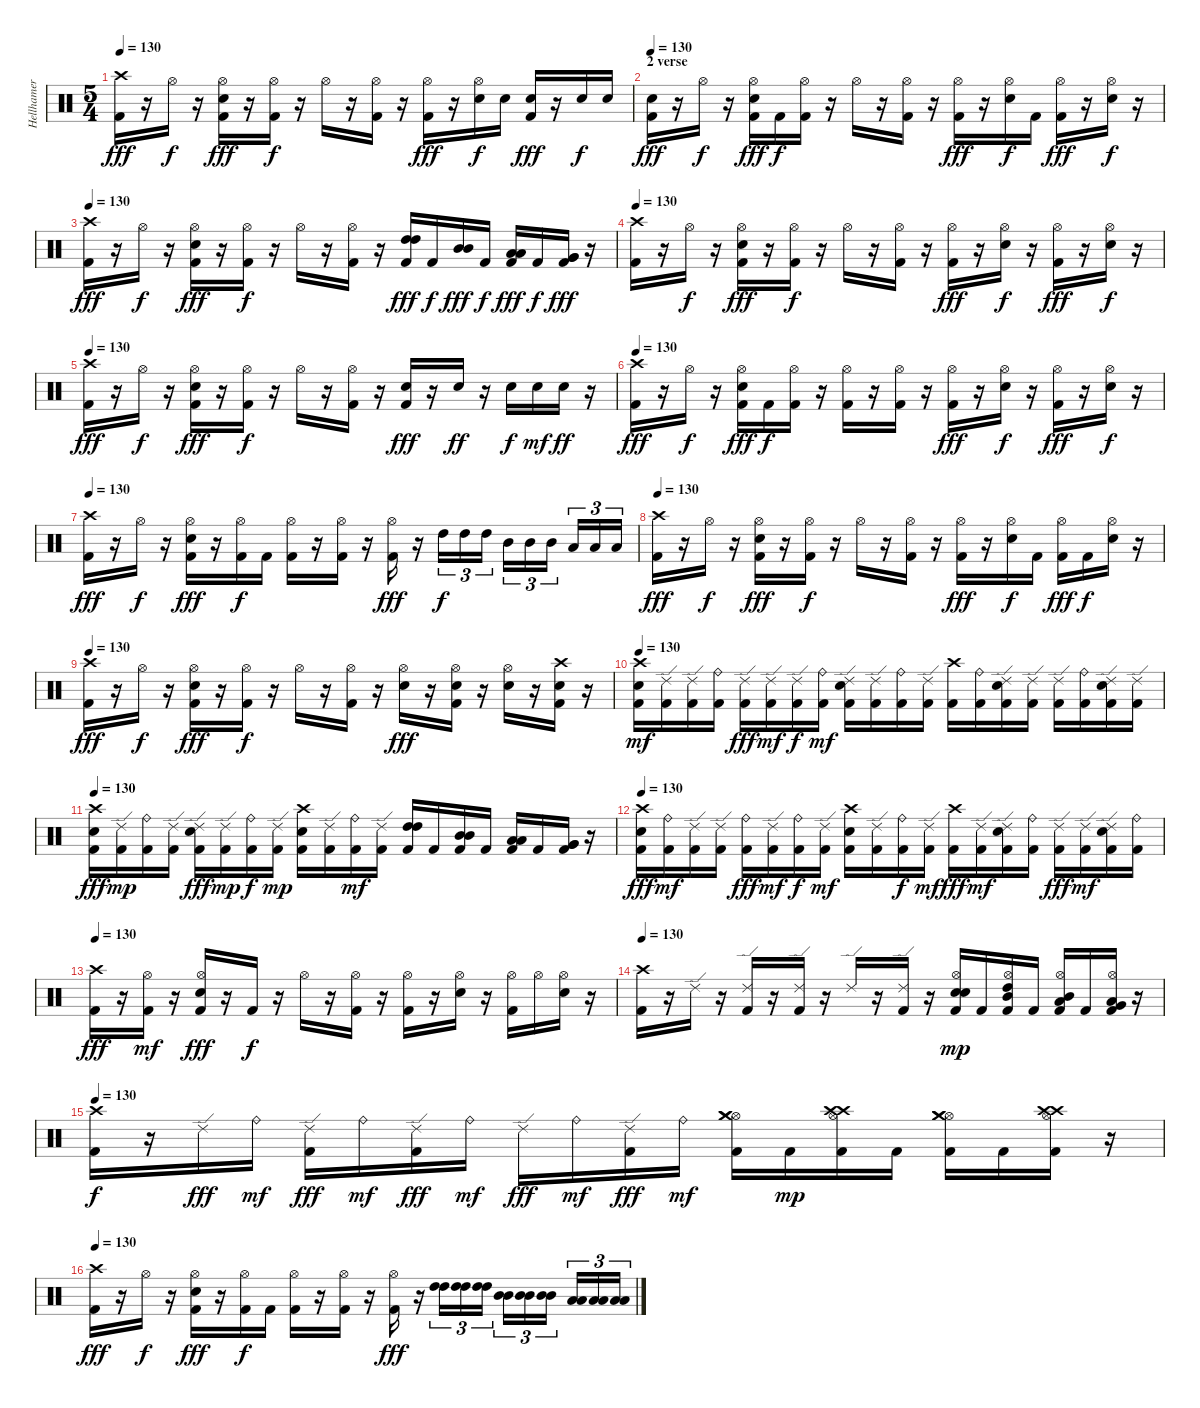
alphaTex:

\track ("Hellhamer" "Hellhamer") {instrument percussion}
\staff {score}
\articulation defaults
\ts (5 4)
\tempo 130
\clef neutral
\ks c
("Crash high (hit)" "Kick (hit) 2").16{dy fff} r.16 "Hi-Hat (open)".16{dy f} r.16 ("Hi-Hat (open)" "Electric Snare (hit)" "Kick (hit) 2").16{dy fff} r.16 ("Hi-Hat (open)" "Kick (hit) 2").16{dy f} r.16 "Hi-Hat (open)".16 r.16 ("Hi-Hat (open)" "Kick (hit) 2").16 r.16 ("Hi-Hat (open)" "Kick (hit) 2").16{dy fff} r.16 ("Hi-Hat (open)" "Electric Snare (hit)").16{dy f} "Electric Snare (hit)".16 ("Electric Snare (hit)" "Kick (hit) 2").16{dy fff} r.16 "Electric Snare (hit)".16{dy f} "Electric Snare (hit)".16 |
\section ("" "2 verse")
\tempo 130
("Electric Snare (hit)" "Kick (hit) 2").16{dy fff} r.16 "Hi-Hat (open)".16{dy f} r.16 ("Hi-Hat (open)" "Electric Snare (hit)" "Kick (hit) 2").16{dy fff} "Kick (hit) 2".16{dy f} ("Hi-Hat (open)" "Kick (hit) 2").16 r.16 "Hi-Hat (open)".16 r.16 ("Hi-Hat (open)" "Kick (hit) 2").16 r.16 ("Hi-Hat (open)" "Kick (hit) 2").16{dy fff} r.16 ("Hi-Hat (open)" "Electric Snare (hit)").16{dy f} "Kick (hit) 2".16 ("Hi-Hat (open)" "Kick (hit) 2").16{dy fff} r.16 ("Hi-Hat (open)" "Electric Snare (hit)").16{dy f} r.16 |
\tempo 130
("Crash high (hit)" "Kick (hit) 2").16{dy fff} r.16 "Hi-Hat (open)".16{dy f} r.16 ("Hi-Hat (open)" "Electric Snare (hit)" "Kick (hit) 2").16{dy fff} r.16 ("Hi-Hat (open)" "Kick (hit) 2").16{dy f} r.16 "Hi-Hat (open)".16 r.16 ("Hi-Hat (open)" "Kick (hit) 2").16 r.16 ("High Tom (hit)" "High Tom (hit)" "Kick (hit) 2").16{dy fff} "Kick (hit) 2".16{dy f} ("Mid Tom (hit)" "Mid Tom (hit)").16{dy fff} "Kick (hit) 2".16{dy f} ("Low Tom (hit)" "Low Tom (hit)" "Kick (hit) 2").16{dy fff} "Kick (hit) 2".16{dy f} ("Very Low Tom (hit)" "Very Low Tom (hit)" "Kick (hit) 2").16{dy fff} r.16 |
\tempo 130
("Crash high (hit)" "Kick (hit) 2").16 r.16 "Hi-Hat (open)".16{dy f} r.16 ("Hi-Hat (open)" "Electric Snare (hit)" "Kick (hit) 2").16{dy fff} r.16 ("Hi-Hat (open)" "Kick (hit) 2").16{dy f} r.16 "Hi-Hat (open)".16 r.16 ("Hi-Hat (open)" "Kick (hit) 2").16 r.16 ("Hi-Hat (open)" "Kick (hit) 2").16{dy fff} r.16 ("Hi-Hat (open)" "Electric Snare (hit)").16{dy f} r.16 ("Hi-Hat (open)" "Kick (hit) 2").16{dy fff} r.16 ("Hi-Hat (open)" "Electric Snare (hit)").16{dy f} r.16 |
\tempo 130
("Crash high (hit)" "Kick (hit) 2").16{dy fff} r.16 "Hi-Hat (open)".16{dy f} r.16 ("Hi-Hat (open)" "Electric Snare (hit)" "Kick (hit) 2").16{dy fff} r.16 ("Hi-Hat (open)" "Kick (hit) 2").16{dy f} r.16 "Hi-Hat (open)".16 r.16 ("Hi-Hat (open)" "Kick (hit) 2").16 r.16 ("Electric Snare (hit)" "Kick (hit) 2").16{dy fff} r.16 "Electric Snare (hit)".16{dy ff} r.16 "Electric Snare (hit)".16{dy f} "Electric Snare (hit)".16{dy mf} "Electric Snare (hit)".16{dy ff} r.16 |
\tempo 130
("Crash high (hit)" "Kick (hit) 2").16{dy fff} r.16 "Hi-Hat (open)".16{dy f} r.16 ("Hi-Hat (open)" "Electric Snare (hit)" "Kick (hit) 2").16{dy fff} "Kick (hit) 2".16{dy f} ("Hi-Hat (open)" "Kick (hit) 2").16 r.16 ("Hi-Hat (open)" "Kick (hit) 2").16 r.16 ("Hi-Hat (open)" "Kick (hit) 2").16 r.16 ("Hi-Hat (open)" "Kick (hit) 2").16{dy fff} r.16 ("Hi-Hat (open)" "Electric Snare (hit)").16{dy f} r.16 ("Hi-Hat (open)" "Kick (hit) 2").16{dy fff} r.16 ("Hi-Hat (open)" "Electric Snare (hit)").16{dy f} r.16 |
\tempo 130
("Crash high (hit)" "Kick (hit) 2").16{dy fff} r.16 "Hi-Hat (open)".16{dy f} r.16 ("Hi-Hat (open)" "Electric Snare (hit)" "Kick (hit) 2").16{dy fff} r.16 ("Hi-Hat (open)" "Kick (hit) 2").16{dy f} "Kick (hit) 2".16 ("Hi-Hat (open)" "Kick (hit) 2").16 r.16 ("Hi-Hat (open)" "Kick (hit) 2").16 r.16 ("Hi-Hat (open)" "Kick (hit) 2").16{dy fff} r.16 "High Tom (hit)".16{tu (3 2) dy f} "High Tom (hit)".16{tu (3 2)} "High Tom (hit)".16{tu (3 2)} "Mid Tom (hit)".16{tu (3 2)} "Mid Tom (hit)".16{tu (3 2)} "Mid Tom (hit)".16{tu (3 2)} "Low Tom (hit)".16{tu (3 2)} "Low Tom (hit)".16{tu (3 2)} "Low Tom (hit)".16{tu (3 2)} |
\tempo 130
("Crash high (hit)" "Kick (hit) 2").16{dy fff} r.16 "Hi-Hat (open)".16{dy f} r.16 ("Hi-Hat (open)" "Electric Snare (hit)" "Kick (hit) 2").16{dy fff} r.16 ("Hi-Hat (open)" "Kick (hit) 2").16{dy f} r.16 "Hi-Hat (open)".16 r.16 ("Hi-Hat (open)" "Kick (hit) 2").16 r.16 ("Hi-Hat (open)" "Kick (hit) 2").16{dy fff} r.16 ("Hi-Hat (open)" "Electric Snare (hit)").16{dy f} "Kick (hit) 2".16 ("Hi-Hat (open)" "Kick (hit) 2").16{dy fff} "Kick (hit) 2".16{dy f} ("Hi-Hat (open)" "Electric Snare (hit)").16 r.16 |
\tempo 130
("Crash high (hit)" "Kick (hit) 2").16{dy fff} r.16 "Hi-Hat (open)".16{dy f} r.16 ("Hi-Hat (open)" "Electric Snare (hit)" "Kick (hit) 2").16{dy fff} r.16 ("Hi-Hat (open)" "Kick (hit) 2").16{dy f} r.16 "Hi-Hat (open)".16 r.16 ("Hi-Hat (open)" "Kick (hit) 2").16 r.16 ("Hi-Hat (open)" "Electric Snare (hit)").16{dy fff} r.16 ("Hi-Hat (open)" "Electric Snare (hit)" "Kick (hit) 2").16 r.16 ("Hi-Hat (open)" "Electric Snare (hit)").16 r.16 ("Crash high (hit)" "Electric Snare (hit)" "Kick (hit) 2").16 r.16 |
\tempo 130
("Crash high (hit)" "Electric Snare (hit)" "Kick (hit) 2").16{dy mf} ("Ride (edge) 2" "Kick (hit) 2").16 ("Ride (edge) 2" "Kick (hit) 2").16 ("Ride (bell)" "Kick (hit) 2").16 ("Ride (edge) 2" "Kick (hit) 2").16{dy fff} ("Ride (edge) 2" "Kick (hit) 2").16{dy mf} ("Ride (edge) 2" "Kick (hit) 2").16{dy f} ("Ride (bell)" "Kick (hit) 2").16{dy mf} ("Ride (edge) 2" "Electric Snare (hit)" "Kick (hit) 2").16 ("Ride (edge) 2" "Kick (hit) 2").16 ("Ride (bell)" "Kick (hit) 2").16 ("Ride (edge) 2" "Kick (hit) 2").16 ("Crash high (hit)" "Kick (hit) 2").16 ("Ride (bell)" "Kick (hit) 2").16 ("Ride (edge) 2" "Electric Snare (hit)" "Kick (hit) 2").16 ("Ride (edge) 2" "Kick (hit) 2").16 ("Ride (edge) 2" "Kick (hit) 2").16 ("Ride (bell)" "Kick (hit) 2").16 ("Ride (edge) 2" "Electric Snare (hit)" "Kick (hit) 2").16 ("Ride (edge) 2" "Kick (hit) 2").16 |
\tempo 130
("Crash high (hit)" "Electric Snare (hit)" "Kick (hit) 2").16{dy fff} ("Ride (edge) 2" "Kick (hit) 2").16{dy mp} ("Ride (bell)" "Kick (hit) 2").16 ("Ride (edge) 2" "Kick (hit) 2").16 ("Ride (edge) 2" "Electric Snare (hit)" "Kick (hit) 2").16{dy fff} ("Ride (edge) 2" "Kick (hit) 2").16{dy mp} ("Ride (bell)" "Kick (hit) 2").16{dy f} ("Ride (edge) 2" "Kick (hit) 2").16{dy mp} ("Crash high (hit)" "Electric Snare (hit)" "Kick (hit) 2").16 ("Ride (edge) 2" "Kick (hit) 2").16 ("Ride (bell)" "Kick (hit) 2").16{dy mf} ("Ride (edge) 2" "Kick (hit) 2").16 ("High Tom (hit)" "High Tom (hit)" "Kick (hit) 2").16 "Kick (hit) 2".16 ("Mid Tom (hit)" "Mid Tom (hit)" "Kick (hit) 2").16 "Kick (hit) 2".16 ("Low Tom (hit)" "Low Tom (hit)" "Kick (hit) 2").16 "Kick (hit) 2".16 ("Very Low Tom (hit)" "Very Low Tom (hit)" "Kick (hit) 2").16 r.16 |
\tempo 130
("Crash high (hit)" "Electric Snare (hit)" "Kick (hit) 2").16{dy fff} ("Ride (bell)" "Kick (hit) 2").16{dy mf} ("Ride (edge) 2" "Kick (hit) 2").16 ("Ride (edge) 2" "Kick (hit) 2").16 ("Ride (bell)" "Kick (hit) 2").16{dy fff} ("Ride (edge) 2" "Kick (hit) 2").16{dy mf} ("Ride (bell)" "Kick (hit) 2").16{dy f} ("Ride (edge) 2" "Kick (hit) 2").16{dy mf} ("Crash high (hit)" "Electric Snare (hit)" "Kick (hit) 2").16 ("Ride (edge) 2" "Kick (hit) 2").16 ("Ride (bell)" "Kick (hit) 2").16{dy f} ("Ride (edge) 2" "Kick (hit) 2").16{dy mf} ("Crash high (hit)" "Kick (hit) 2").16{dy fff} ("Ride (edge) 2" "Kick (hit) 2").16{dy mf} ("Ride (edge) 2" "Electric Snare (hit)" "Kick (hit) 2").16 ("Ride (bell)" "Kick (hit) 2").16 ("Ride (edge) 2" "Kick (hit) 2").16{dy fff} ("Ride (edge) 2" "Kick (hit) 2").16{dy mf} ("Ride (edge) 2" "Electric Snare (hit)" "Kick (hit) 2").16 ("Ride (bell)" "Kick (hit) 2").16 |
\tempo 130
("Crash high (hit)" "Kick (hit) 2").16{dy fff} r.16 ("Hi-Hat (open)" "Kick (hit) 2").16{dy mf} r.16 ("Hi-Hat (open)" "Electric Snare (hit)" "Kick (hit) 2").16{dy fff} r.16 "Kick (hit) 2".16{dy f} r.16 "Hi-Hat (open)".16 r.16 ("Hi-Hat (open)" "Kick (hit) 2").16 r.16 ("Hi-Hat (open)" "Kick (hit) 2").16 r.16 ("Hi-Hat (open)" "Electric Snare (hit)").16 r.16 ("Hi-Hat (open)" "Kick (hit) 2").16 "Hi-Hat (open)".16 ("Hi-Hat (open)" "Electric Snare (hit)").16 r.16 |
\tempo 130
("Crash high (hit)" "Kick (hit) 2").16 r.16 "Ride (edge) 2".16 r.16 ("Ride (edge) 2" "Kick (hit) 2").16 r.16 ("Ride (edge) 2" "Kick (hit) 2").16 r.16 "Ride (edge) 2".16 r.16 ("Ride (edge) 2" "Kick (hit) 2").16 r.16 ("Electric Snare (hit)" "Electric Snare (hit)" "Hi-Hat (open)" "Kick (hit) 2").16{dy mp} "Kick (hit) 2".16 ("High Tom (hit)" "Mid Tom (hit)" "Hi-Hat (open)" "Kick (hit) 2").16 "Kick (hit) 2".16 ("Mid Tom (hit)" "Low Tom (hit)" "Hi-Hat (open)" "Kick (hit) 2").16 "Kick (hit) 2".16 ("Low Tom (hit)" "Very Low Tom (hit)" "Hi-Hat (open)" "Kick (hit) 2").16 r.16 |
\tempo 130
("Crash high (hit)" "Kick (hit) 2").16{dy f} r.16 "Ride (edge) 2".16{dy fff} "Ride (bell)".16{dy mf} ("Ride (edge) 2" "Kick (hit) 2").16{dy fff} "Ride (bell)".16{dy mf} ("Ride (edge) 2" "Kick (hit) 2").16{dy fff} "Ride (bell)".16{dy mf} "Ride (edge) 2".16{dy fff} "Ride (bell)".16{dy mf} ("Ride (edge) 2" "Kick (hit) 2").16{dy fff} "Ride (bell)".16{dy mf} ("Hi-Hat (open)" "Crash medium (hit)" "Crash medium (hit)" "Kick (hit) 2").16 "Kick (hit) 2".16{dy mp} ("Hi-Hat (open)" "Crash high (hit)" "Crash high (hit)" "Kick (hit) 2").16 "Kick (hit) 2".16 ("Hi-Hat (open)" "Crash medium (hit)" "Crash medium (hit)" "Kick (hit) 2").16 "Kick (hit) 2".16 ("Hi-Hat (open)" "Crash high (hit)" "Crash high (hit)" "Kick (hit) 2").16 r.16 |
\tempo 130
("Crash high (hit)" "Kick (hit) 2").16{dy fff} r.16 "Hi-Hat (open)".16{dy f} r.16 ("Hi-Hat (open)" "Electric Snare (hit)" "Kick (hit) 2").16{dy fff} r.16 ("Hi-Hat (open)" "Kick (hit) 2").16{dy f} "Kick (hit) 2".16 ("Hi-Hat (open)" "Kick (hit) 2").16 r.16 ("Hi-Hat (open)" "Kick (hit) 2").16 r.16 ("Hi-Hat (open)" "Kick (hit) 2").16{dy fff} r.16 ("High Tom (hit)" "High Tom (hit)").16{tu (3 2)} ("High Tom (hit)" "High Tom (hit)").16{tu (3 2)} ("High Tom (hit)" "High Tom (hit)").16{tu (3 2)} ("Mid Tom (hit)" "Mid Tom (hit)").16{tu (3 2)} ("Mid Tom (hit)" "Mid Tom (hit)").16{tu (3 2)} ("Mid Tom (hit)" "Mid Tom (hit)").16{tu (3 2)} ("Low Tom (hit)" "Low Tom (hit)").16{tu (3 2)} ("Low Tom (hit)" "Low Tom (hit)").16{tu (3 2)} ("Low Tom (hit)" "Low Tom (hit)").16{tu (3 2)}
